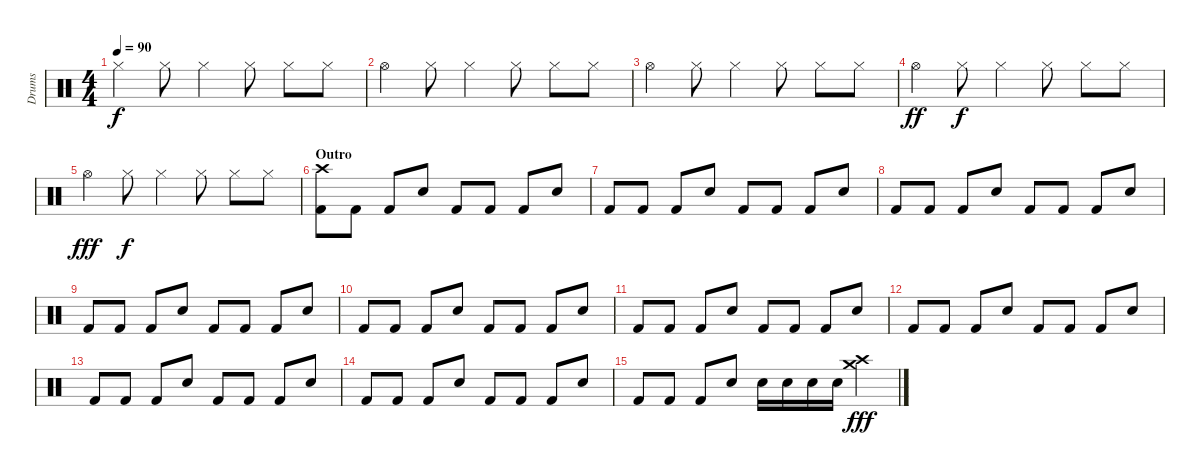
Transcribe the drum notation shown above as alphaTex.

\track ("Drums" "Drums") {instrument percussion}
\staff {score}
\articulation defaults
\ts (4 4)
\tempo 90
\clef neutral
\ks c "Hi-Hat (closed)".4{dy f} "Hi-Hat (closed)".8 "Hi-Hat (closed)".4 "Hi-Hat (closed)".8 "Hi-Hat (closed)".8 "Hi-Hat (closed)".8
|
"Hi-Hat (open)".4 "Hi-Hat (closed)".8 "Hi-Hat (closed)".4 "Hi-Hat (closed)".8 "Hi-Hat (closed)".8 "Hi-Hat (closed)".8 |
"Hi-Hat (open)".4 "Hi-Hat (closed)".8 "Hi-Hat (closed)".4 "Hi-Hat (closed)".8 "Hi-Hat (closed)".8 "Hi-Hat (closed)".8 |
"Hi-Hat (open)".4{dy ff} "Hi-Hat (closed)".8{dy f} "Hi-Hat (closed)".4 "Hi-Hat (closed)".8 "Hi-Hat (closed)".8 "Hi-Hat (closed)".8 |
"Hi-Hat (open)".4{dy fff} "Hi-Hat (closed)".8{dy f} "Hi-Hat (closed)".4 "Hi-Hat (closed)".8 "Hi-Hat (closed)".8 "Hi-Hat (closed)".8 |
\section ("" "Outro")
("Crash high (hit)" "Kick (hit) 2").8 "Kick (hit) 2".8 "Kick (hit) 2".8 "Snare (hit) 2".8 "Kick (hit) 2".8 "Kick (hit) 2".8 "Kick (hit) 2".8 "Snare (hit) 2".8 |
"Kick (hit) 2".8 "Kick (hit) 2".8 "Kick (hit) 2".8 "Snare (hit) 2".8 "Kick (hit) 2".8 "Kick (hit) 2".8 "Kick (hit) 2".8 "Snare (hit) 2".8 |
"Kick (hit) 2".8 "Kick (hit) 2".8 "Kick (hit) 2".8 "Snare (hit) 2".8 "Kick (hit) 2".8 "Kick (hit) 2".8 "Kick (hit) 2".8 "Snare (hit) 2".8 |
"Kick (hit) 2".8 "Kick (hit) 2".8 "Kick (hit) 2".8 "Snare (hit) 2".8 "Kick (hit) 2".8 "Kick (hit) 2".8 "Kick (hit) 2".8 "Snare (hit) 2".8 |
"Kick (hit) 2".8 "Kick (hit) 2".8 "Kick (hit) 2".8 "Snare (hit) 2".8 "Kick (hit) 2".8 "Kick (hit) 2".8 "Kick (hit) 2".8 "Snare (hit) 2".8 |
"Kick (hit) 2".8 "Kick (hit) 2".8 "Kick (hit) 2".8 "Snare (hit) 2".8 "Kick (hit) 2".8 "Kick (hit) 2".8 "Kick (hit) 2".8 "Snare (hit) 2".8 |
"Kick (hit) 2".8 "Kick (hit) 2".8 "Kick (hit) 2".8 "Snare (hit) 2".8 "Kick (hit) 2".8 "Kick (hit) 2".8 "Kick (hit) 2".8 "Snare (hit) 2".8 |
"Kick (hit) 2".8 "Kick (hit) 2".8 "Kick (hit) 2".8 "Snare (hit) 2".8 "Kick (hit) 2".8 "Kick (hit) 2".8 "Kick (hit) 2".8 "Snare (hit) 2".8 |
"Kick (hit) 2".8 "Kick (hit) 2".8 "Kick (hit) 2".8 "Snare (hit) 2".8 "Kick (hit) 2".8 "Kick (hit) 2".8 "Kick (hit) 2".8 "Snare (hit) 2".8 |
"Kick (hit) 2".8 "Kick (hit) 2".8 "Kick (hit) 2".8 "Snare (hit) 2".8 "Electric Snare (hit)".16 "Electric Snare (hit)".16 "Electric Snare (hit)".16 "Electric Snare (hit)".16 ("Crash high (hit)" "Crash medium (hit)").4{dy fff}
